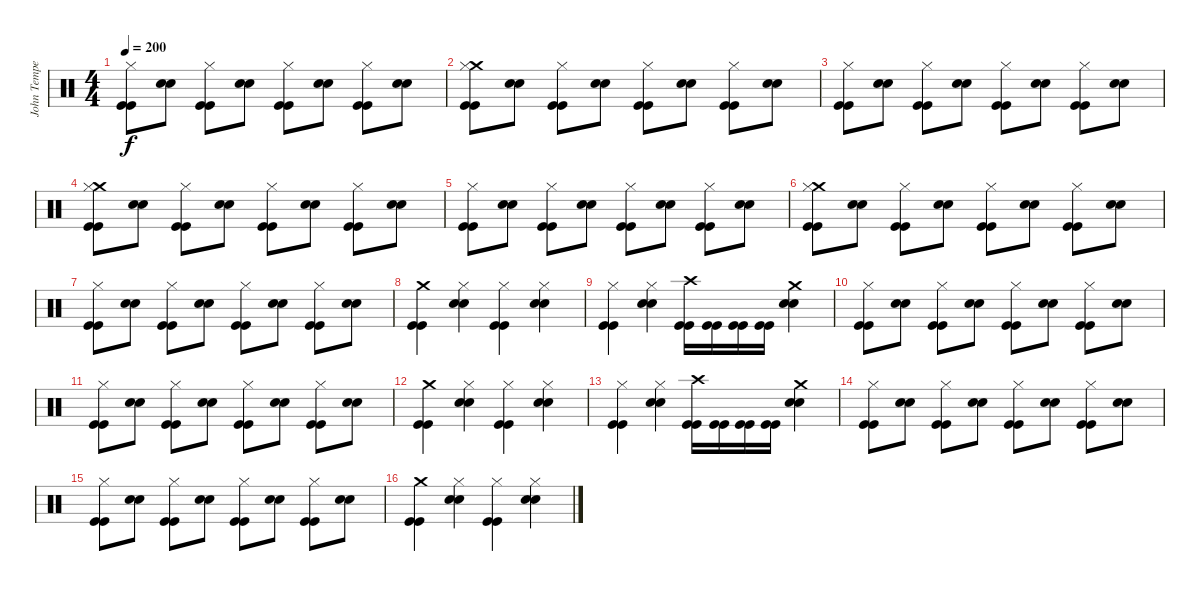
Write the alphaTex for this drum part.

\track ("John Tempesta" "John Tempe") {instrument percussion}
\staff {score}
\articulation defaults
\ts (4 4)
\tempo 200
\clef neutral
\ks c
("Hi-Hat (closed)" "Kick (hit)" "Kick (hit)").8{dy f} ("Snare (hit) 2" "Snare (hit) 2").8 ("Hi-Hat (closed)" "Kick (hit)" "Kick (hit)").8 ("Snare (hit) 2" "Snare (hit) 2").8 ("Hi-Hat (closed)" "Kick (hit)" "Kick (hit)").8 ("Snare (hit) 2" "Snare (hit) 2").8 ("Hi-Hat (closed)" "Kick (hit)" "Kick (hit)").8 ("Snare (hit) 2" "Snare (hit) 2").8 |
("Crash medium (hit)" "Hi-Hat (closed)" "Kick (hit)" "Kick (hit)").8 ("Snare (hit) 2" "Snare (hit) 2").8 ("Hi-Hat (closed)" "Kick (hit)" "Kick (hit)").8 ("Snare (hit) 2" "Snare (hit) 2").8 ("Hi-Hat (closed)" "Kick (hit)" "Kick (hit)").8 ("Snare (hit) 2" "Snare (hit) 2").8 ("Hi-Hat (closed)" "Kick (hit)" "Kick (hit)").8 ("Snare (hit) 2" "Snare (hit) 2").8 |
("Hi-Hat (closed)" "Kick (hit)" "Kick (hit)").8 ("Snare (hit) 2" "Snare (hit) 2").8 ("Hi-Hat (closed)" "Kick (hit)" "Kick (hit)").8 ("Snare (hit) 2" "Snare (hit) 2").8 ("Hi-Hat (closed)" "Kick (hit)" "Kick (hit)").8 ("Snare (hit) 2" "Snare (hit) 2").8 ("Hi-Hat (closed)" "Kick (hit)" "Kick (hit)").8 ("Snare (hit) 2" "Snare (hit) 2").8 |
("Crash medium (hit)" "Hi-Hat (closed)" "Kick (hit)" "Kick (hit)").8 ("Snare (hit) 2" "Snare (hit) 2").8 ("Hi-Hat (closed)" "Kick (hit)" "Kick (hit)").8 ("Snare (hit) 2" "Snare (hit) 2").8 ("Hi-Hat (closed)" "Kick (hit)" "Kick (hit)").8 ("Snare (hit) 2" "Snare (hit) 2").8 ("Hi-Hat (closed)" "Kick (hit)" "Kick (hit)").8 ("Snare (hit) 2" "Snare (hit) 2").8 |
("Hi-Hat (closed)" "Kick (hit)" "Kick (hit)").8 ("Snare (hit) 2" "Snare (hit) 2").8 ("Hi-Hat (closed)" "Kick (hit)" "Kick (hit)").8 ("Snare (hit) 2" "Snare (hit) 2").8 ("Hi-Hat (closed)" "Kick (hit)" "Kick (hit)").8 ("Snare (hit) 2" "Snare (hit) 2").8 ("Hi-Hat (closed)" "Kick (hit)" "Kick (hit)").8 ("Snare (hit) 2" "Snare (hit) 2").8 |
("Crash medium (hit)" "Hi-Hat (closed)" "Kick (hit)" "Kick (hit)").8 ("Snare (hit) 2" "Snare (hit) 2").8 ("Hi-Hat (closed)" "Kick (hit)" "Kick (hit)").8 ("Snare (hit) 2" "Snare (hit) 2").8 ("Hi-Hat (closed)" "Kick (hit)" "Kick (hit)").8 ("Snare (hit) 2" "Snare (hit) 2").8 ("Hi-Hat (closed)" "Kick (hit)" "Kick (hit)").8 ("Snare (hit) 2" "Snare (hit) 2").8 |
("Hi-Hat (closed)" "Kick (hit)" "Kick (hit)").8 ("Snare (hit) 2" "Snare (hit) 2").8 ("Hi-Hat (closed)" "Kick (hit)" "Kick (hit)").8 ("Snare (hit) 2" "Snare (hit) 2").8 ("Hi-Hat (closed)" "Kick (hit)" "Kick (hit)").8 ("Snare (hit) 2" "Snare (hit) 2").8 ("Hi-Hat (closed)" "Kick (hit)" "Kick (hit)").8 ("Snare (hit) 2" "Snare (hit) 2").8 |
("Crash medium (hit)" "Kick (hit)" "Kick (hit)").4 ("Snare (hit) 2" "Snare (hit) 2" "Hi-Hat (closed)").4 ("Hi-Hat (closed)" "Kick (hit)" "Kick (hit)").4 ("Snare (hit) 2" "Snare (hit) 2" "Hi-Hat (closed)").4 |
("Hi-Hat (closed)" "Kick (hit)" "Kick (hit)").4 ("Snare (hit) 2" "Snare (hit) 2" "Hi-Hat (closed)").4 ("Crash high (hit)" "Kick (hit)" "Kick (hit)").16 ("Kick (hit)" "Kick (hit)").16 ("Kick (hit)" "Kick (hit)").16 ("Kick (hit)" "Kick (hit)").16 ("Crash medium (hit)" "Snare (hit) 2" "Snare (hit) 2").4 |
("Hi-Hat (closed)" "Kick (hit)" "Kick (hit)").8 ("Snare (hit) 2" "Snare (hit) 2").8 ("Hi-Hat (closed)" "Kick (hit)" "Kick (hit)").8 ("Snare (hit) 2" "Snare (hit) 2").8 ("Hi-Hat (closed)" "Kick (hit)" "Kick (hit)").8 ("Snare (hit) 2" "Snare (hit) 2").8 ("Hi-Hat (closed)" "Kick (hit)" "Kick (hit)").8 ("Snare (hit) 2" "Snare (hit) 2").8 |
("Hi-Hat (closed)" "Kick (hit)" "Kick (hit)").8 ("Snare (hit) 2" "Snare (hit) 2").8 ("Hi-Hat (closed)" "Kick (hit)" "Kick (hit)").8 ("Snare (hit) 2" "Snare (hit) 2").8 ("Hi-Hat (closed)" "Kick (hit)" "Kick (hit)").8 ("Snare (hit) 2" "Snare (hit) 2").8 ("Hi-Hat (closed)" "Kick (hit)" "Kick (hit)").8 ("Snare (hit) 2" "Snare (hit) 2").8 |
("Crash medium (hit)" "Kick (hit)" "Kick (hit)").4 ("Snare (hit) 2" "Snare (hit) 2" "Hi-Hat (closed)").4 ("Hi-Hat (closed)" "Kick (hit)" "Kick (hit)").4 ("Snare (hit) 2" "Snare (hit) 2" "Hi-Hat (closed)").4 |
("Hi-Hat (closed)" "Kick (hit)" "Kick (hit)").4 ("Snare (hit) 2" "Snare (hit) 2" "Hi-Hat (closed)").4 ("Crash high (hit)" "Kick (hit)" "Kick (hit)").16 ("Kick (hit)" "Kick (hit)").16 ("Kick (hit)" "Kick (hit)").16 ("Kick (hit)" "Kick (hit)").16 ("Crash medium (hit)" "Snare (hit) 2" "Snare (hit) 2").4 |
("Hi-Hat (closed)" "Kick (hit)" "Kick (hit)").8 ("Snare (hit) 2" "Snare (hit) 2").8 ("Hi-Hat (closed)" "Kick (hit)" "Kick (hit)").8 ("Snare (hit) 2" "Snare (hit) 2").8 ("Hi-Hat (closed)" "Kick (hit)" "Kick (hit)").8 ("Snare (hit) 2" "Snare (hit) 2").8 ("Hi-Hat (closed)" "Kick (hit)" "Kick (hit)").8 ("Snare (hit) 2" "Snare (hit) 2").8 |
("Hi-Hat (closed)" "Kick (hit)" "Kick (hit)").8 ("Snare (hit) 2" "Snare (hit) 2").8 ("Hi-Hat (closed)" "Kick (hit)" "Kick (hit)").8 ("Snare (hit) 2" "Snare (hit) 2").8 ("Hi-Hat (closed)" "Kick (hit)" "Kick (hit)").8 ("Snare (hit) 2" "Snare (hit) 2").8 ("Hi-Hat (closed)" "Kick (hit)" "Kick (hit)").8 ("Snare (hit) 2" "Snare (hit) 2").8 |
("Crash medium (hit)" "Kick (hit)" "Kick (hit)").4 ("Snare (hit) 2" "Snare (hit) 2" "Hi-Hat (closed)").4 ("Hi-Hat (closed)" "Kick (hit)" "Kick (hit)").4 ("Snare (hit) 2" "Snare (hit) 2" "Hi-Hat (closed)").4
